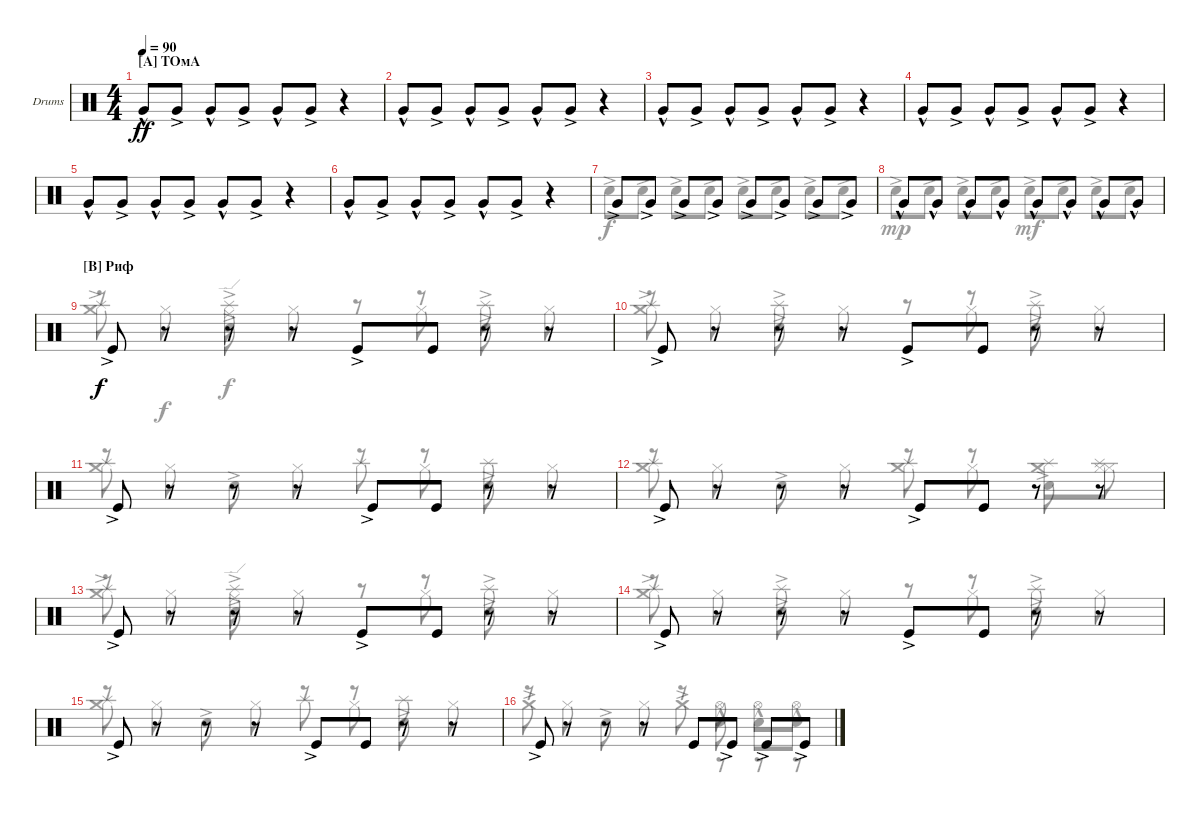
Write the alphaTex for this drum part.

\defaultSystemsLayout 4
\bracketExtendMode groupsimilarinstruments
\firstSystemTrackNameOrientation horizontal
\otherSystemsTrackNameOrientation horizontal
\track ("Drumkit" "Drums") {instrument percussion}
\staff {score}
\articulation defaults
\voice
\ts (4 4)
\section ("A" "ТОмА")
\tempo 90
\clef neutral
\scale
0.474178
\ks c "Very Low Tom (hit)"{hac}.8{dy ff} "Very Low Tom (hit)"{ac}.8 "Very Low Tom (hit)"{hac}.8 "Very Low Tom (hit)"{ac}.8 "Very Low Tom (hit)"{hac}.8 "Very Low Tom (hit)"{ac}.8
r.4 |
\scale
0.262911 "Very Low Tom (hit)"{hac}.8 "Very Low Tom (hit)"{ac}.8 "Very Low Tom (hit)"{hac}.8 "Very Low Tom (hit)"{ac}.8 "Very Low Tom (hit)"{hac}.8 "Very Low Tom (hit)"{ac}.8 r.4 |
\scale
0.262911 "Very Low Tom (hit)"{hac}.8 "Very Low Tom (hit)"{ac}.8 "Very Low Tom (hit)"{hac}.8 "Very Low Tom (hit)"{ac}.8 "Very Low Tom (hit)"{hac}.8 "Very Low Tom (hit)"{ac}.8 r.4 |
\scale
0.333333 "Very Low Tom (hit)"{hac}.8 "Very Low Tom (hit)"{ac}.8 "Very Low Tom (hit)"{hac}.8 "Very Low Tom (hit)"{ac}.8 "Very Low Tom (hit)"{hac}.8 "Very Low Tom (hit)"{ac}.8 r.4 |
\scale
0.333333 "Very Low Tom (hit)"{hac}.8 "Very Low Tom (hit)"{ac}.8 "Very Low Tom (hit)"{hac}.8 "Very Low Tom (hit)"{ac}.8 "Very Low Tom (hit)"{hac}.8 "Very Low Tom (hit)"{ac}.8 r.4 |
\scale
0.333333 "Very Low Tom (hit)"{hac}.8 "Very Low Tom (hit)"{ac}.8 "Very Low Tom (hit)"{hac}.8 "Very Low Tom (hit)"{ac}.8 "Very Low Tom (hit)"{hac}.8 "Very Low Tom (hit)"{ac}.8 r.4 |
\scale
0.333333 "Very Low Tom (hit)"{ac}.8 "Very Low Tom (hit)"{ac}.8 "Very Low Tom (hit)"{ac}.8 "Very Low Tom (hit)"{ac}.8 "Very Low Tom (hit)"{ac}.8 "Very Low Tom (hit)"{ac}.8 "Very Low Tom (hit)"{ac}.8 "Very Low Tom (hit)"{ac}.8 |
\scale
0.333333 "Very Low Tom (hit)"{hac}.8 "Very Low Tom (hit)"{hac}.8 "Very Low Tom (hit)"{hac}.8 "Very Low Tom (hit)"{hac}.8 "Very Low Tom (hit)"{hac}.8 "Very Low Tom (hit)"{hac}.8 "Very Low Tom (hit)"{hac}.8 "Very Low Tom (hit)"{hac}.8 |
\section ("B" "Риф")
\scale
0.333333 "Kick (hit)"{ac}.8{dy f} r.8 r.8 r.8 "Kick (hit)"{ac}.8 "Kick (hit)".8 r.8 r.8 |
\scale
0.333333 "Kick (hit)"{ac}.8 r.8 r.8 r.8 "Kick (hit)"{ac}.8 "Kick (hit)".8 r.8 r.8 |
\scale
0.333333 "Kick (hit)"{ac}.8 r.8 r.8 r.8 "Kick (hit)"{ac}.8 "Kick (hit)".8 r.8 r.8 |
\scale
0.333333 "Kick (hit)"{ac}.8 r.8 r.8 r.8 "Kick (hit)"{ac}.8 "Kick (hit)".8 r.8 r.8 |
\scale
0.333333 "Kick (hit)"{ac}.8 r.8 r.8 r.8 "Kick (hit)"{ac}.8 "Kick (hit)".8 r.8 r.8 |
\scale
0.333333 "Kick (hit)"{ac}.8 r.8 r.8 r.8 "Kick (hit)"{ac}.8 "Kick (hit)".8 r.8 r.8 |
\scale
0.333333 "Kick (hit)"{ac}.8 r.8 r.8 r.8 "Kick (hit)"{ac}.8 "Kick (hit)".8 r.8 r.8 |
\scale
0.333333 "Kick (hit)"{ac}.8 r.8 r.8 r.8 "Kick (hit)".8 "Kick (hit)"{ac}.8 "Kick (hit)"{ac}.8 "Kick (hit)"{ac}.8
\voice
\clef neutral
\ottava regular
\simile none
\scale
0.474178
\ks c
|
\scale
0.262911 |
\scale
0.262911 |
\scale
0.333333 |
\scale
0.333333 |
\scale
0.333333 |
\scale
0.333333 "Snare (hit) 2"{ac}.8 "Snare (hit) 2"{ac}.8 "Snare (hit) 2"{ac}.8 "Snare (hit) 2"{ac}.8 "Snare (hit) 2"{ac}.8 "Snare (hit) 2"{ac}.8 "Snare (hit) 2"{ac}.8 "Snare (hit) 2"{ac}.8 |
\scale
0.333333 "Snare (hit) 2"{ac}.8{dy mp} "Snare (hit) 2"{ac}.8 "Snare (hit) 2"{ac}.8 "Snare (hit) 2"{ac}.8 "Snare (hit) 2"{ac}.8{dy mf} "Snare (hit) 2"{ac}.8 "Snare (hit) 2"{ac}.8 "Snare (hit) 2"{ac}.8 |
\scale
0.333333 r.8 r.8 "Snare (hit) 2"{ac}.8{dy f} r.8 r.8 r.8 "Snare (hit) 2"{ac}.8 r.8 |
\scale
0.333333 r.8 r.8 "Snare (hit) 2"{ac}.8 r.8 r.8 r.8 "Snare (hit) 2"{ac}.8 r.8 |
\scale
0.333333 r.8 r.8 "Snare (hit) 2"{ac}.8 r.8 r.8 r.8 "Snare (hit) 2"{ac}.8 r.8 |
\scale
0.333333 r.8 r.8 "Snare (hit) 2"{ac}.8 r.8 r.8 r.8 "Snare (hit) 2"{ac}.8 r.8 |
\scale
0.333333 r.8 r.8 "Snare (hit) 2"{ac}.8 r.8 r.8 r.8 "Snare (hit) 2"{ac}.8 r.8 |
\scale
0.333333 r.8 r.8 "Snare (hit) 2"{ac}.8 r.8 r.8 r.8 "Snare (hit) 2"{ac}.8 r.8 |
\scale
0.333333 r.8 r.8 "Snare (hit) 2"{ac}.8 r.8 r.8 r.8 "Snare (hit) 2"{ac}.8 r.8 |
\scale
0.333333 r.8 r.8 "Snare (hit) 2"{ac}.8 r.8 r.8 "Snare (hit) 2"{hac}.8 "Snare (hit) 2"{hac}.8 "Snare (hit) 2"{hac}.8
\voice
\clef neutral
\ottava regular
\simile none
\scale
0.474178
\ks c
|
\scale
0.262911 |
\scale
0.262911 |
\scale
0.333333 |
\scale
0.333333 |
\scale
0.333333 |
\scale
0.333333 |
\scale
0.333333 |
\scale
0.333333 r.8 "Hi-Hat (closed)".8 r.8 "Hi-Hat (closed)".8 r.8 "Hi-Hat (closed)".8 r.8 "Hi-Hat (closed)".8 |
\scale
0.333333 r.8 "Hi-Hat (closed)".8 r.8 "Hi-Hat (closed)".8 r.8 "Hi-Hat (closed)".8 r.8 "Hi-Hat (closed)".8 |
\scale
0.333333 r.8 "Hi-Hat (closed)".8 r.8 "Hi-Hat (closed)".8 r.8 "Hi-Hat (closed)".8 r.8 "Hi-Hat (closed)".8 |
\scale
0.333333 r.8 "Hi-Hat (closed)".8 r.8 "Hi-Hat (closed)".8 r.8 "Hi-Hat (closed)".8 r.8 "Hi-Hat (closed)".8 |
\scale
0.333333 r.8 "Hi-Hat (closed)".8 r.8 "Hi-Hat (closed)".8 r.8 "Hi-Hat (closed)".8 r.8 "Hi-Hat (closed)".8 |
\scale
0.333333 r.8 "Hi-Hat (closed)".8 r.8 "Hi-Hat (closed)".8 r.8 "Hi-Hat (closed)".8 r.8 "Hi-Hat (closed)".8 |
\scale
0.333333 r.8 "Hi-Hat (closed)".8 r.8 "Hi-Hat (closed)".8 r.8 "Hi-Hat (closed)".8 r.8 "Hi-Hat (closed)".8 |
\scale
0.333333 r.8 "Hi-Hat (closed)".8 r.8 "Hi-Hat (closed)".8 r.8 "Hi-Hat (open)".8 "Hi-Hat (open)".8 "Hi-Hat (open)".8
\voice
\clef neutral
\ottava regular
\simile none
\scale
0.474178
\ks c
|
\scale
0.262911 |
\scale
0.262911 |
\scale
0.333333 |
\scale
0.333333 |
\scale
0.333333 |
\scale
0.333333 |
\scale
0.333333 |
\scale
0.333333 ("Splash (hit)"{ac} "Crash medium (hit)"{ac}).8 r.8 ("Splash (hit)"{ac} "Ride (edge)"{ac}).8 r.8 r.8 r.8 "Splash (hit)"{ac}.8 r.8 |
\scale
0.333333 ("Splash (hit)"{ac} "Crash medium (hit)"{ac}).8 r.8 "Splash (hit)"{ac}.8 r.8 r.8 r.8 "Splash (hit)"{ac}.8 r.8 |
\scale
0.333333 ("Splash (hit)" "Crash medium (hit)").8 r.8 r.8 r.8 "Splash (hit)".8 r.8 "Splash (hit)".8 r.8 |
\scale
0.333333 ("Splash (hit)" "Crash medium (hit)").8 r.8 r.8 r.8 ("Splash (hit)" "Crash medium (hit)").8 r.8 ("Splash (hit)" "Crash medium (hit)").8 ("Hi-Hat (closed)" "Splash (hit)").8 |
\scale
0.333333 ("Splash (hit)"{ac} "Crash medium (hit)"{ac}).8 r.8 ("Splash (hit)"{ac} "Ride (edge)"{ac}).8 r.8 r.8 r.8 "Splash (hit)"{ac}.8 r.8 |
\scale
0.333333 ("Splash (hit)"{ac} "Crash medium (hit)"{ac}).8 r.8 "Splash (hit)"{ac}.8 r.8 r.8 r.8 "Splash (hit)"{ac}.8 r.8 |
\scale
0.333333 ("Splash (hit)" "Crash medium (hit)").8 r.8 r.8 r.8 "Splash (hit)".8 r.8 "Splash (hit)".8 r.8 |
\scale
0.333333 "Crash medium (hit)"{ac}.8 r.8 r.8 r.8 "Crash medium (hit)"{ac}.8 r.8 r.8 r.8
